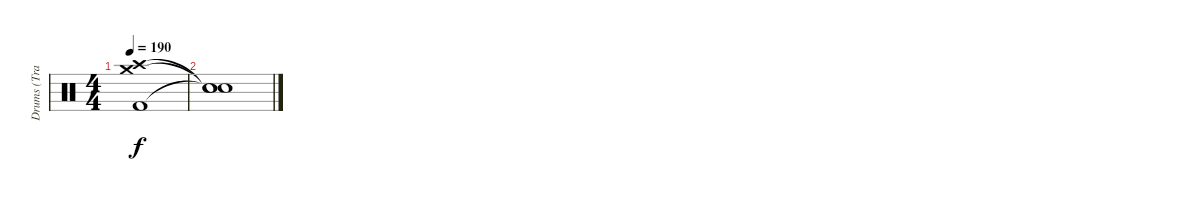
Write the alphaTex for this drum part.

\track ("Drums (Travis)" "Drums (Tra") {instrument percussion}
\staff {score}
\articulation defaults
\ts (4 4)
\tempo 190
\clef neutral
\ks c
("Crash high (hit)" "Crash medium (hit)" "Kick (hit) 2").1{dy f} |
("Snare (hit)"{t} "Snare (hit)"{t} "Snare (hit)"{t}).1
